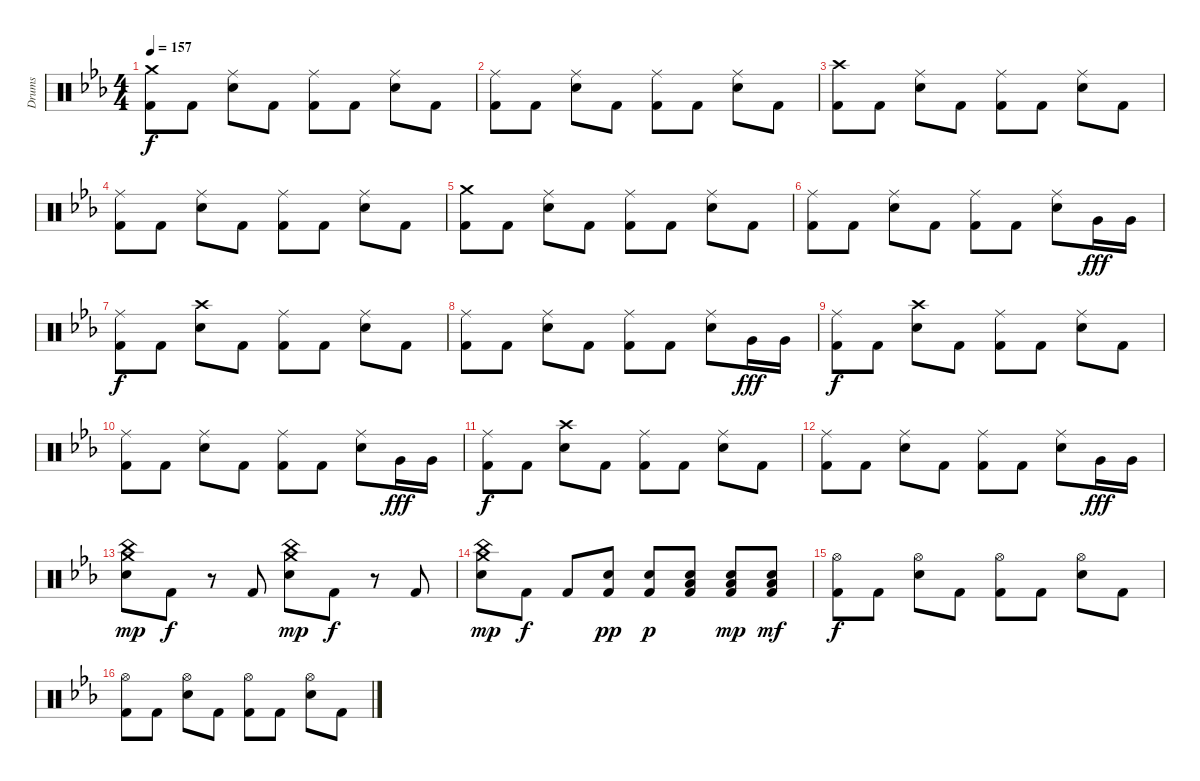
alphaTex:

\track ("Drums" "Drums") {instrument percussion}
\staff {score}
\articulation defaults
\ts (4 4)
\tempo 157
\clef neutral
\ks cminor
("Crash medium (hit)" "Kick (hit) 2").8{dy f} "Kick (hit) 2".8 ("Ride (middle)" "Electric Snare (hit)").8 "Kick (hit) 2".8 ("Ride (middle)" "Kick (hit) 2").8 "Kick (hit) 2".8 ("Ride (middle)" "Electric Snare (hit)").8 "Kick (hit) 2".8 |
("Ride (middle)" "Kick (hit) 2").8 "Kick (hit) 2".8 ("Ride (middle)" "Electric Snare (hit)").8 "Kick (hit) 2".8 ("Ride (middle)" "Kick (hit) 2").8 "Kick (hit) 2".8 ("Ride (middle)" "Electric Snare (hit)").8 "Kick (hit) 2".8 |
("Crash high (hit)" "Kick (hit) 2").8 "Kick (hit) 2".8 ("Ride (middle)" "Electric Snare (hit)").8 "Kick (hit) 2".8 ("Ride (middle)" "Kick (hit) 2").8 "Kick (hit) 2".8 ("Ride (middle)" "Electric Snare (hit)").8 "Kick (hit) 2".8 |
("Ride (middle)" "Kick (hit) 2").8 "Kick (hit) 2".8 ("Ride (middle)" "Electric Snare (hit)").8 "Kick (hit) 2".8 ("Ride (middle)" "Kick (hit) 2").8 "Kick (hit) 2".8 ("Ride (middle)" "Electric Snare (hit)").8 "Kick (hit) 2".8 |
("Crash medium (hit)" "Kick (hit) 2").8 "Kick (hit) 2".8 ("Ride (middle)" "Electric Snare (hit)").8 "Kick (hit) 2".8 ("Ride (middle)" "Kick (hit) 2").8 "Kick (hit) 2".8 ("Ride (middle)" "Electric Snare (hit)").8 "Kick (hit) 2".8 |
("Ride (middle)" "Kick (hit) 2").8 "Kick (hit) 2".8 ("Ride (middle)" "Electric Snare (hit)").8 "Kick (hit) 2".8 ("Ride (middle)" "Kick (hit) 2").8 "Kick (hit) 2".8 ("Ride (middle)" "Electric Snare (hit)").8 "Very Low Tom (hit)".16{dy fff} "Very Low Tom (hit)".16 |
("Ride (middle)" "Kick (hit) 2").8{dy f} "Kick (hit) 2".8 ("Crash high (hit)" "Electric Snare (hit)").8 "Kick (hit) 2".8 ("Ride (middle)" "Kick (hit) 2").8 "Kick (hit) 2".8 ("Ride (middle)" "Electric Snare (hit)").8 "Kick (hit) 2".8 |
("Ride (middle)" "Kick (hit) 2").8 "Kick (hit) 2".8 ("Ride (middle)" "Electric Snare (hit)").8 "Kick (hit) 2".8 ("Ride (middle)" "Kick (hit) 2").8 "Kick (hit) 2".8 ("Ride (middle)" "Electric Snare (hit)").8 "Very Low Tom (hit)".16{dy fff} "Very Low Tom (hit)".16 |
("Ride (middle)" "Kick (hit) 2").8{dy f} "Kick (hit) 2".8 ("Crash high (hit)" "Electric Snare (hit)").8 "Kick (hit) 2".8 ("Ride (middle)" "Kick (hit) 2").8 "Kick (hit) 2".8 ("Ride (middle)" "Electric Snare (hit)").8 "Kick (hit) 2".8 |
("Ride (middle)" "Kick (hit) 2").8 "Kick (hit) 2".8 ("Ride (middle)" "Electric Snare (hit)").8 "Kick (hit) 2".8 ("Ride (middle)" "Kick (hit) 2").8 "Kick (hit) 2".8 ("Ride (middle)" "Electric Snare (hit)").8 "Very Low Tom (hit)".16{dy fff} "Very Low Tom (hit)".16 |
("Ride (middle)" "Kick (hit) 2").8{dy f} "Kick (hit) 2".8 ("Crash high (hit)" "Electric Snare (hit)").8 "Kick (hit) 2".8 ("Ride (middle)" "Kick (hit) 2").8 "Kick (hit) 2".8 ("Ride (middle)" "Electric Snare (hit)").8 "Kick (hit) 2".8 |
("Ride (middle)" "Kick (hit) 2").8 "Kick (hit) 2".8 ("Ride (middle)" "Electric Snare (hit)").8 "Kick (hit) 2".8 ("Ride (middle)" "Kick (hit) 2").8 "Kick (hit) 2".8 ("Ride (middle)" "Electric Snare (hit)").8 "Very Low Tom (hit)".16{dy fff} "Very Low Tom (hit)".16 |
("China (hit)" "Crash medium (hit)" "Electric Snare (hit)").8{dy mp} "Kick (hit) 2".8{dy f} r.8 "Kick (hit) 2".8 ("China (hit)" "Crash medium (hit)" "Electric Snare (hit)").8{dy mp} "Kick (hit) 2".8{dy f} r.8 "Kick (hit) 2".8 |
("China (hit)" "Crash medium (hit)" "Electric Snare (hit)").8{dy mp} "Kick (hit) 2".8{dy f} "Kick (hit) 2".8 ("Electric Snare (hit)" "Kick (hit) 2").8{dy pp} ("Electric Snare (hit)" "Kick (hit) 2").8{dy p} ("Electric Snare (hit)" "Low Floor Tom (hit)" "Kick (hit) 2").8 ("Electric Snare (hit)" "Low Floor Tom (hit)" "Kick (hit) 2").8{dy mp} ("Electric Snare (hit)" "Low Floor Tom (hit)" "Kick (hit) 2").8{dy mf} |
("Hi-Hat (open)" "Kick (hit) 2").8{dy f} "Kick (hit) 2".8 ("Hi-Hat (open)" "Electric Snare (hit)").8 "Kick (hit) 2".8 ("Hi-Hat (open)" "Kick (hit) 2").8 "Kick (hit) 2".8 ("Hi-Hat (open)" "Electric Snare (hit)").8 "Kick (hit) 2".8 |
("Hi-Hat (open)" "Kick (hit) 2").8 "Kick (hit) 2".8 ("Hi-Hat (open)" "Electric Snare (hit)").8 "Kick (hit) 2".8 ("Hi-Hat (open)" "Kick (hit) 2").8 "Kick (hit) 2".8 ("Hi-Hat (open)" "Electric Snare (hit)").8 "Kick (hit) 2".8
